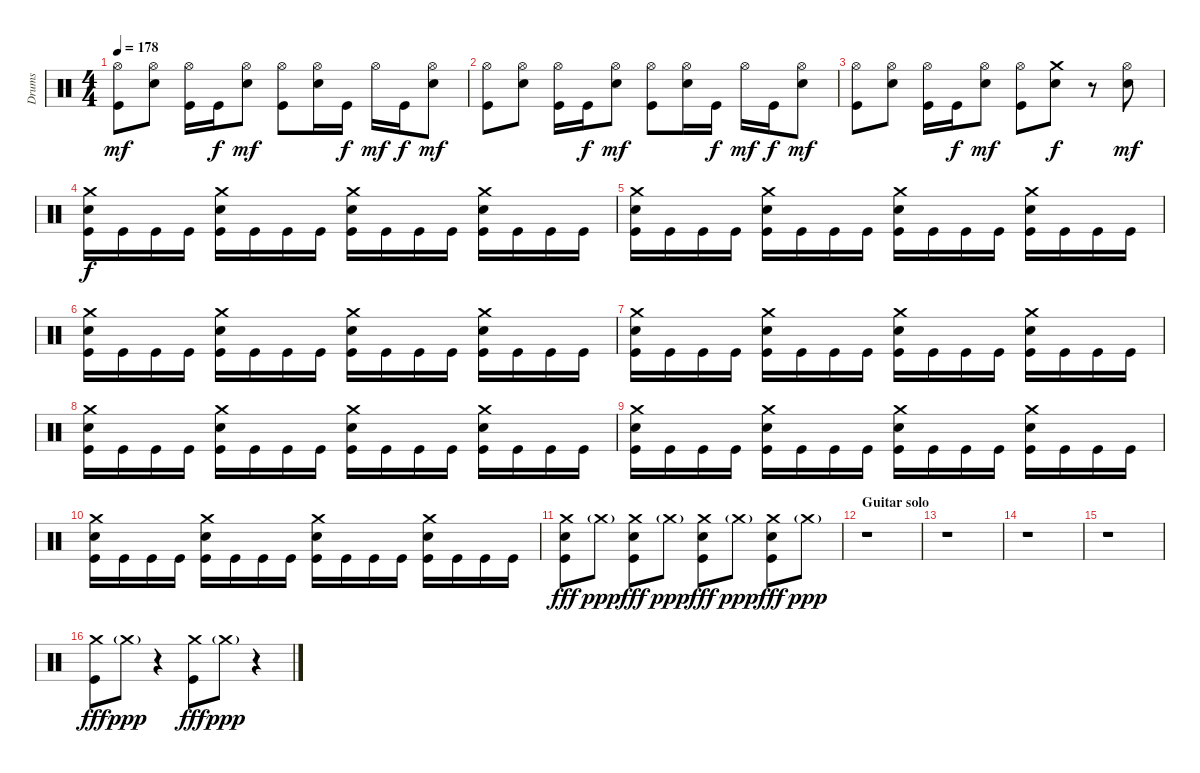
\track ("Drums" "Drums") {instrument percussion}
\staff {score}
\articulation defaults
\ts (4 4)
\tempo 178
\clef neutral
\ks c
("Hi-Hat (open)" "Kick (hit)").8{dy mf} ("Hi-Hat (open)" "Electric Snare (hit)").8 ("Hi-Hat (open)" "Kick (hit)").16 "Kick (hit)".16{dy f} ("Hi-Hat (open)" "Electric Snare (hit)").8{dy mf} ("Hi-Hat (open)" "Kick (hit)").8 ("Hi-Hat (open)" "Electric Snare (hit)").16 "Kick (hit)".16{dy f} "Hi-Hat (open)".16{dy mf} "Kick (hit)".16{dy f} ("Hi-Hat (open)" "Electric Snare (hit)").8{dy mf} |
("Hi-Hat (open)" "Kick (hit)").8 ("Hi-Hat (open)" "Electric Snare (hit)").8 ("Hi-Hat (open)" "Kick (hit)").16 "Kick (hit)".16{dy f} ("Hi-Hat (open)" "Electric Snare (hit)").8{dy mf} ("Hi-Hat (open)" "Kick (hit)").8 ("Hi-Hat (open)" "Electric Snare (hit)").16 "Kick (hit)".16{dy f} "Hi-Hat (open)".16{dy mf} "Kick (hit)".16{dy f} ("Hi-Hat (open)" "Electric Snare (hit)").8{dy mf} |
("Hi-Hat (open)" "Kick (hit)").8 ("Hi-Hat (open)" "Electric Snare (hit)").8 ("Hi-Hat (open)" "Kick (hit)").16 "Kick (hit)".16{dy f} ("Hi-Hat (open)" "Electric Snare (hit)").8{dy mf} ("Hi-Hat (open)" "Kick (hit)").8 ("Crash medium (hit)" "Electric Snare (hit)").8{dy f} r.8 ("Hi-Hat (open)" "Electric Snare (hit)").8{dy mf} |
("Crash medium (hit)" "Electric Snare (hit)" "Kick (hit)").16{dy f} "Kick (hit)".16 "Kick (hit)".16 "Kick (hit)".16 ("Crash medium (hit)" "Electric Snare (hit)" "Kick (hit)").16 "Kick (hit)".16 "Kick (hit)".16 "Kick (hit)".16 ("Crash medium (hit)" "Electric Snare (hit)" "Kick (hit)").16 "Kick (hit)".16 "Kick (hit)".16 "Kick (hit)".16 ("Crash medium (hit)" "Electric Snare (hit)" "Kick (hit)").16 "Kick (hit)".16 "Kick (hit)".16 "Kick (hit)".16 |
("Crash medium (hit)" "Electric Snare (hit)" "Kick (hit)").16 "Kick (hit)".16 "Kick (hit)".16 "Kick (hit)".16 ("Crash medium (hit)" "Electric Snare (hit)" "Kick (hit)").16 "Kick (hit)".16 "Kick (hit)".16 "Kick (hit)".16 ("Crash medium (hit)" "Electric Snare (hit)" "Kick (hit)").16 "Kick (hit)".16 "Kick (hit)".16 "Kick (hit)".16 ("Crash medium (hit)" "Electric Snare (hit)" "Kick (hit)").16 "Kick (hit)".16 "Kick (hit)".16 "Kick (hit)".16 |
("Crash medium (hit)" "Electric Snare (hit)" "Kick (hit)").16 "Kick (hit)".16 "Kick (hit)".16 "Kick (hit)".16 ("Crash medium (hit)" "Electric Snare (hit)" "Kick (hit)").16 "Kick (hit)".16 "Kick (hit)".16 "Kick (hit)".16 ("Crash medium (hit)" "Electric Snare (hit)" "Kick (hit)").16 "Kick (hit)".16 "Kick (hit)".16 "Kick (hit)".16 ("Crash medium (hit)" "Electric Snare (hit)" "Kick (hit)").16 "Kick (hit)".16 "Kick (hit)".16 "Kick (hit)".16 |
("Crash medium (hit)" "Electric Snare (hit)" "Kick (hit)").16 "Kick (hit)".16 "Kick (hit)".16 "Kick (hit)".16 ("Crash medium (hit)" "Electric Snare (hit)" "Kick (hit)").16 "Kick (hit)".16 "Kick (hit)".16 "Kick (hit)".16 ("Crash medium (hit)" "Electric Snare (hit)" "Kick (hit)").16 "Kick (hit)".16 "Kick (hit)".16 "Kick (hit)".16 ("Crash medium (hit)" "Electric Snare (hit)" "Kick (hit)").16 "Kick (hit)".16 "Kick (hit)".16 "Kick (hit)".16 |
("Crash medium (hit)" "Electric Snare (hit)" "Kick (hit)").16 "Kick (hit)".16 "Kick (hit)".16 "Kick (hit)".16 ("Crash medium (hit)" "Electric Snare (hit)" "Kick (hit)").16 "Kick (hit)".16 "Kick (hit)".16 "Kick (hit)".16 ("Crash medium (hit)" "Electric Snare (hit)" "Kick (hit)").16 "Kick (hit)".16 "Kick (hit)".16 "Kick (hit)".16 ("Crash medium (hit)" "Electric Snare (hit)" "Kick (hit)").16 "Kick (hit)".16 "Kick (hit)".16 "Kick (hit)".16 |
("Crash medium (hit)" "Electric Snare (hit)" "Kick (hit)").16 "Kick (hit)".16 "Kick (hit)".16 "Kick (hit)".16 ("Crash medium (hit)" "Electric Snare (hit)" "Kick (hit)").16 "Kick (hit)".16 "Kick (hit)".16 "Kick (hit)".16 ("Crash medium (hit)" "Electric Snare (hit)" "Kick (hit)").16 "Kick (hit)".16 "Kick (hit)".16 "Kick (hit)".16 ("Crash medium (hit)" "Electric Snare (hit)" "Kick (hit)").16 "Kick (hit)".16 "Kick (hit)".16 "Kick (hit)".16 |
("Crash medium (hit)" "Electric Snare (hit)" "Kick (hit)").16 "Kick (hit)".16 "Kick (hit)".16 "Kick (hit)".16 ("Crash medium (hit)" "Electric Snare (hit)" "Kick (hit)").16 "Kick (hit)".16 "Kick (hit)".16 "Kick (hit)".16 ("Crash medium (hit)" "Electric Snare (hit)" "Kick (hit)").16 "Kick (hit)".16 "Kick (hit)".16 "Kick (hit)".16 ("Crash medium (hit)" "Electric Snare (hit)" "Kick (hit)").16 "Kick (hit)".16 "Kick (hit)".16 "Kick (hit)".16 |
("Crash medium (hit)" "Electric Snare (hit)" "Kick (hit)").8{dy fff} "Crash medium (hit)"{g}.8{dy ppp} ("Crash medium (hit)" "Electric Snare (hit)" "Kick (hit)").8{dy fff} "Crash medium (hit)"{g}.8{dy ppp} ("Crash medium (hit)" "Electric Snare (hit)" "Kick (hit)").8{dy fff} "Crash medium (hit)"{g}.8{dy ppp} ("Crash medium (hit)" "Electric Snare (hit)" "Kick (hit)").8{dy fff} "Crash medium (hit)"{g}.8{dy ppp} |
\section ("" "Guitar solo")
r.1 |
r.1 |
r.1 |
r.1 |
("Crash medium (hit)" "Kick (hit)").8{dy fff} "Crash medium (hit)"{g}.8{dy ppp} r.4 ("Crash medium (hit)" "Kick (hit)").8{dy fff} "Crash medium (hit)"{g}.8{dy ppp} r.4
